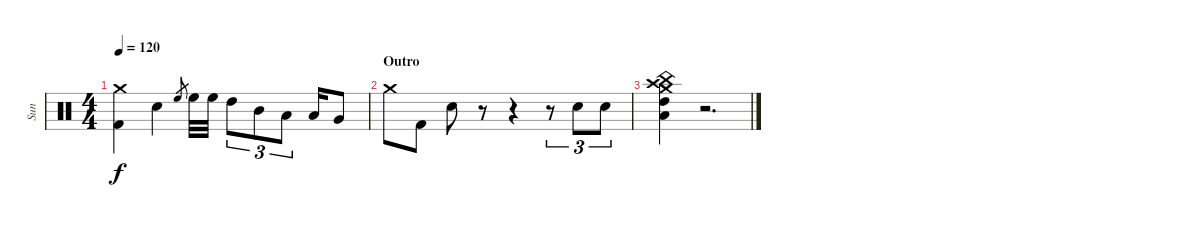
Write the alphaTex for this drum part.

\track ("Sun" "Sun") {instrument percussion}
\staff {score}
\articulation defaults
\ts (4 4)
\tempo 120
\clef neutral
\ks c
("Crash medium (hit)" "Kick (hit) 2").4{dy f} "Electric Snare (hit)".4 "High Floor Tom (hit)".8{gr} "High Floor Tom (hit)".32 "High Floor Tom (hit)".32 "High Tom (hit)".8{tu (3 2)} "Mid Tom (hit)".8{tu (3 2)} "Low Tom (hit)".8{tu (3 2)} "Low Tom (hit)".16 "Very Low Tom (hit)".8 |
\section ("" "Outro")
"Crash medium (hit)".8 "Kick (hit) 2".8 "Electric Snare (hit)".8 r.8 r.4 r.8{tu (3 2)} "Electric Snare (hit)".8{tu (3 2)} "Electric Snare (hit)".8{tu (3 2)} |
("China (hit)" "Crash high (hit)" "Crash medium (hit)" "High Tom (hit)" "Low Tom (hit)").4 r.2{d}
